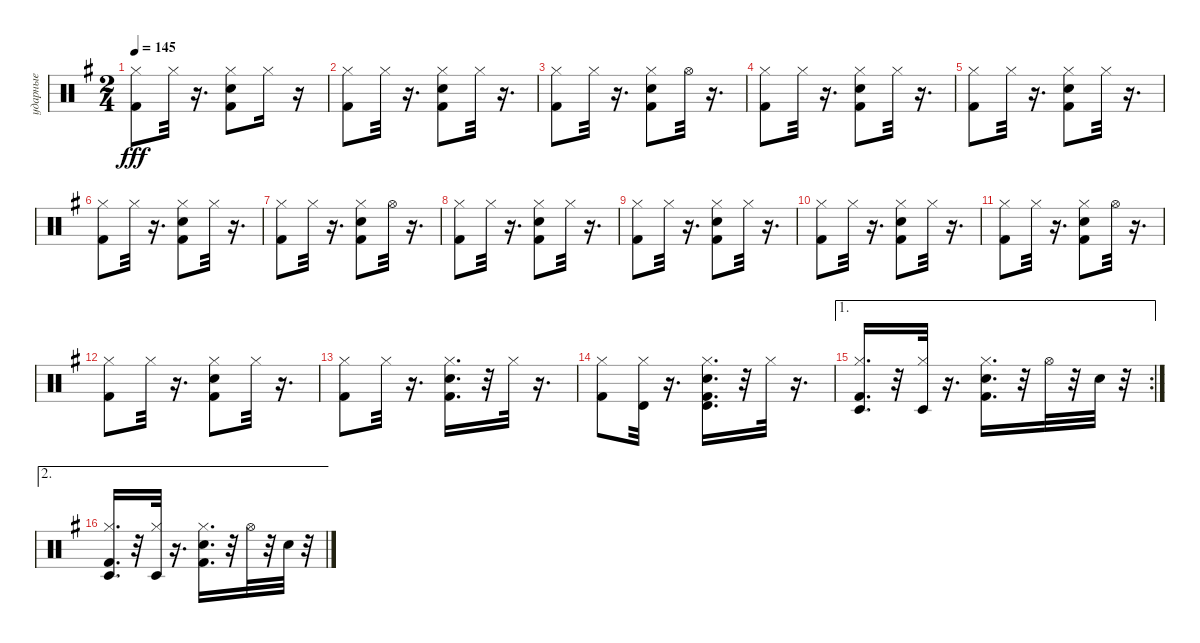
\track ("ударные" "ударные") {instrument percussion}
\staff {score}
\articulation defaults
\ts (2 4)
\tempo 145
\clef neutral
\ks eminor
("Kick (hit) 2" "Hi-Hat (closed)").8{dy fff} "Hi-Hat (closed)".32 r.16{d} ("Snare (hit) 2" "Kick (hit) 2" "Hi-Hat (closed)").8 "Hi-Hat (closed)".16 r.16 |
("Kick (hit) 2" "Hi-Hat (closed)").8 "Hi-Hat (closed)".32 r.16{d} ("Snare (hit) 2" "Kick (hit) 2" "Hi-Hat (closed)").8 "Hi-Hat (closed)".32 r.16{d} |
("Kick (hit) 2" "Hi-Hat (closed)").8 "Hi-Hat (closed)".32 r.16{d} ("Kick (hit) 2" "Snare (hit) 2" "Hi-Hat (closed)").8 "Hi-Hat (open)".32 r.16{d} |
("Kick (hit) 2" "Hi-Hat (closed)").8 "Hi-Hat (closed)".32 r.16{d} ("Snare (hit) 2" "Kick (hit) 2" "Hi-Hat (closed)").8 "Hi-Hat (closed)".32 r.16{d} |
("Kick (hit) 2" "Hi-Hat (closed)").8 "Hi-Hat (closed)".32 r.16{d} ("Snare (hit) 2" "Kick (hit) 2" "Hi-Hat (closed)").8 "Hi-Hat (closed)".32 r.16{d} |
("Kick (hit) 2" "Hi-Hat (closed)").8 "Hi-Hat (closed)".32 r.16{d} ("Kick (hit) 2" "Hi-Hat (closed)" "Snare (hit) 2").8 "Hi-Hat (closed)".32 r.16{d} |
("Kick (hit) 2" "Hi-Hat (closed)").8 "Hi-Hat (closed)".32 r.16{d} ("Kick (hit) 2" "Snare (hit) 2" "Hi-Hat (closed)").8 "Hi-Hat (open)".32 r.16{d} |
("Kick (hit) 2" "Hi-Hat (closed)").8 "Hi-Hat (closed)".32 r.16{d} ("Snare (hit) 2" "Kick (hit) 2" "Hi-Hat (closed)").8 "Hi-Hat (closed)".32 r.16{d} |
("Kick (hit) 2" "Hi-Hat (closed)").8 "Hi-Hat (closed)".32 r.16{d} ("Snare (hit) 2" "Kick (hit) 2" "Hi-Hat (closed)").8 "Hi-Hat (closed)".32 r.16{d} |
("Kick (hit) 2" "Hi-Hat (closed)").8 "Hi-Hat (closed)".32 r.16{d} ("Snare (hit) 2" "Kick (hit) 2" "Hi-Hat (closed)").8 "Hi-Hat (closed)".32 r.16{d} |
("Kick (hit) 2" "Hi-Hat (closed)").8 "Hi-Hat (closed)".32 r.16{d} ("Snare (hit) 2" "Kick (hit) 2" "Hi-Hat (closed)").8 "Hi-Hat (open)".32 r.16{d} |
("Kick (hit) 2" "Hi-Hat (closed)").8 "Hi-Hat (closed)".32 r.16{d} ("Snare (hit) 2" "Kick (hit) 2" "Hi-Hat (closed)").8 "Hi-Hat (closed)".32 r.16{d} |
("Kick (hit) 2" "Hi-Hat (closed)").8 "Hi-Hat (closed)".32 r.16{d} ("Snare (hit) 2" "Kick (hit) 2" "Hi-Hat (closed)").16{d} r.32 "Hi-Hat (closed)".32 r.16{d} |
("Kick (hit) 2" "Hi-Hat (closed)").8 ("Timbale high (hit)" "Hi-Hat (closed)").32 r.16{d} ("Timbale high (hit)" "Snare (hit) 2" "Kick (hit) 2" "Hi-Hat (closed)").16{d} r.32 "Hi-Hat (closed)".32 r.16{d} |
\ae 1
\rc 2
("Hi-Hat (closed)" "Kick (hit) 2" "Timbale low (hit)").16{d} r.32 ("Timbale low (hit)" "Hi-Hat (closed)").32 r.16{d} ("Snare (hit) 2" "Kick (hit) 2" "Hi-Hat (closed)").16{d} r.32 "Hi-Hat (open)".32 r.32 "Snare (hit) 2".32 r.32 |
\ae 2
("Hi-Hat (closed)" "Kick (hit) 2" "Timbale low (hit)").16{d} r.32 ("Timbale low (hit)" "Hi-Hat (closed)").32 r.16{d} ("Snare (hit) 2" "Kick (hit) 2" "Hi-Hat (closed)").16{d} r.32 "Hi-Hat (open)".32 r.32 "Snare (hit) 2".32 r.32
